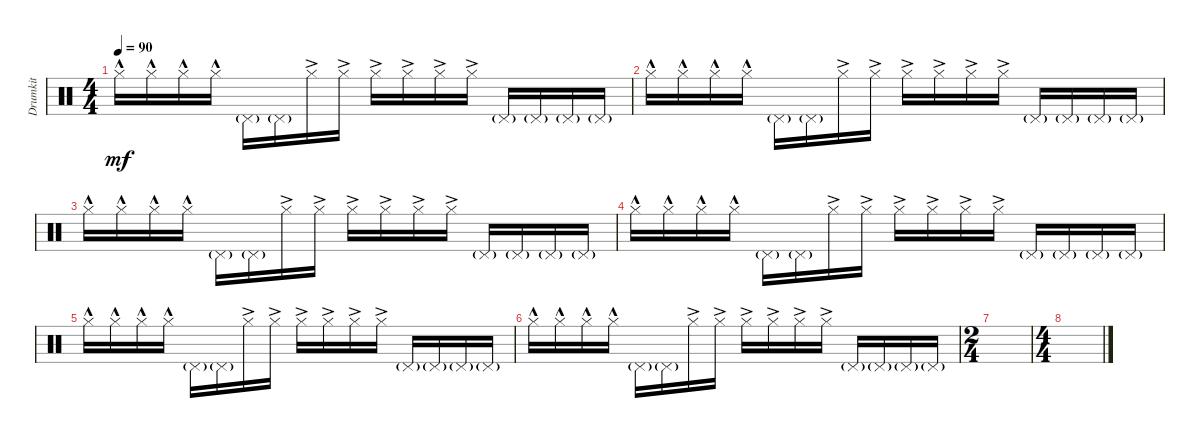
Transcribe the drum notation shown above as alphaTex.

\track ("Drumkit" "Drumkit") {instrument percussion}
\staff {score}
\articulation defaults
\ts (4 4)
\tempo 90
\clef neutral
\ks c "Hi-Hat (closed)"{hac}.16{dy mf} "Hi-Hat (closed)"{hac}.16 "Hi-Hat (closed)"{hac}.16 "Hi-Hat (closed)"{hac}.16 "Pedal Hi-Hat (hit)"{g}.16 "Pedal Hi-Hat (hit)"{g}.16 "Hi-Hat (closed)"{ac}.16 "Hi-Hat (closed)"{ac}.16 "Hi-Hat (closed)"{ac}.16 "Hi-Hat (closed)"{ac}.16 "Hi-Hat (closed)"{ac}.16 "Hi-Hat (closed)"{ac}.16 "Pedal Hi-Hat (hit)"{g}.16 "Pedal Hi-Hat (hit)"{g}.16 "Pedal Hi-Hat (hit)"{g}.16 "Pedal Hi-Hat (hit)"{g}.16
|
"Hi-Hat (closed)"{hac}.16 "Hi-Hat (closed)"{hac}.16 "Hi-Hat (closed)"{hac}.16 "Hi-Hat (closed)"{hac}.16 "Pedal Hi-Hat (hit)"{g}.16 "Pedal Hi-Hat (hit)"{g}.16 "Hi-Hat (closed)"{ac}.16 "Hi-Hat (closed)"{ac}.16 "Hi-Hat (closed)"{ac}.16 "Hi-Hat (closed)"{ac}.16 "Hi-Hat (closed)"{ac}.16 "Hi-Hat (closed)"{ac}.16 "Pedal Hi-Hat (hit)"{g}.16 "Pedal Hi-Hat (hit)"{g}.16 "Pedal Hi-Hat (hit)"{g}.16 "Pedal Hi-Hat (hit)"{g}.16 |
"Hi-Hat (closed)"{hac}.16 "Hi-Hat (closed)"{hac}.16 "Hi-Hat (closed)"{hac}.16 "Hi-Hat (closed)"{hac}.16 "Pedal Hi-Hat (hit)"{g}.16 "Pedal Hi-Hat (hit)"{g}.16 "Hi-Hat (closed)"{ac}.16 "Hi-Hat (closed)"{ac}.16 "Hi-Hat (closed)"{ac}.16 "Hi-Hat (closed)"{ac}.16 "Hi-Hat (closed)"{ac}.16 "Hi-Hat (closed)"{ac}.16 "Pedal Hi-Hat (hit)"{g}.16 "Pedal Hi-Hat (hit)"{g}.16 "Pedal Hi-Hat (hit)"{g}.16 "Pedal Hi-Hat (hit)"{g}.16 |
"Hi-Hat (closed)"{hac}.16 "Hi-Hat (closed)"{hac}.16 "Hi-Hat (closed)"{hac}.16 "Hi-Hat (closed)"{hac}.16 "Pedal Hi-Hat (hit)"{g}.16 "Pedal Hi-Hat (hit)"{g}.16 "Hi-Hat (closed)"{ac}.16 "Hi-Hat (closed)"{ac}.16 "Hi-Hat (closed)"{ac}.16 "Hi-Hat (closed)"{ac}.16 "Hi-Hat (closed)"{ac}.16 "Hi-Hat (closed)"{ac}.16 "Pedal Hi-Hat (hit)"{g}.16 "Pedal Hi-Hat (hit)"{g}.16 "Pedal Hi-Hat (hit)"{g}.16 "Pedal Hi-Hat (hit)"{g}.16 |
"Hi-Hat (closed)"{hac}.16 "Hi-Hat (closed)"{hac}.16 "Hi-Hat (closed)"{hac}.16 "Hi-Hat (closed)"{hac}.16 "Pedal Hi-Hat (hit)"{g}.16 "Pedal Hi-Hat (hit)"{g}.16 "Hi-Hat (closed)"{ac}.16 "Hi-Hat (closed)"{ac}.16 "Hi-Hat (closed)"{ac}.16 "Hi-Hat (closed)"{ac}.16 "Hi-Hat (closed)"{ac}.16 "Hi-Hat (closed)"{ac}.16 "Pedal Hi-Hat (hit)"{g}.16 "Pedal Hi-Hat (hit)"{g}.16 "Pedal Hi-Hat (hit)"{g}.16 "Pedal Hi-Hat (hit)"{g}.16 |
"Hi-Hat (closed)"{hac}.16 "Hi-Hat (closed)"{hac}.16 "Hi-Hat (closed)"{hac}.16 "Hi-Hat (closed)"{hac}.16 "Pedal Hi-Hat (hit)"{g}.16 "Pedal Hi-Hat (hit)"{g}.16 "Hi-Hat (closed)"{ac}.16 "Hi-Hat (closed)"{ac}.16 "Hi-Hat (closed)"{ac}.16 "Hi-Hat (closed)"{ac}.16 "Hi-Hat (closed)"{ac}.16 "Hi-Hat (closed)"{ac}.16 "Pedal Hi-Hat (hit)"{g}.16 "Pedal Hi-Hat (hit)"{g}.16 "Pedal Hi-Hat (hit)"{g}.16 "Pedal Hi-Hat (hit)"{g}.16 |
\ts (2 4)
|
\ts (4 4)
